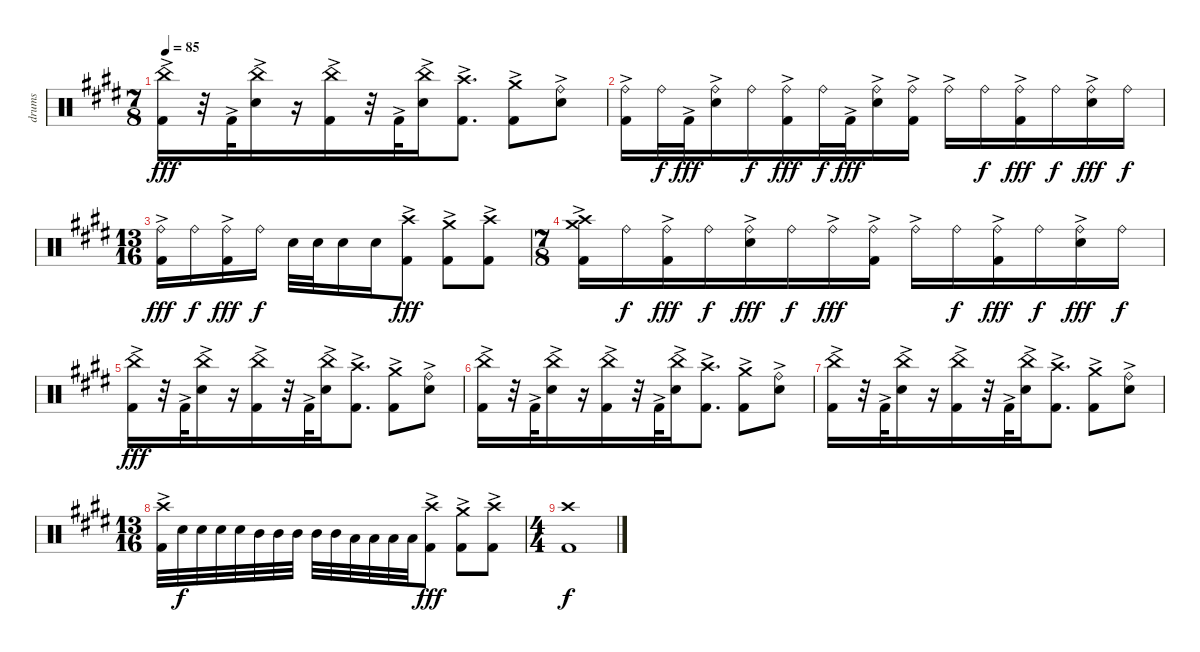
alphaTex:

\track ("drums" "drums") {instrument percussion}
\staff {score}
\articulation defaults
\ts (7 8)
\tempo 85
\clef neutral
\ks e
("China (hit)"{ac} "Kick (hit) 2"{ac}).16{dy fff} r.32 "Kick (hit) 2"{ac}.32 ("China (hit)"{ac} "Snare (hit) 2").16 r.16 ("China (hit)"{ac} "Kick (hit) 2"{ac}).16 r.32 "Kick (hit) 2"{ac}.32 ("China (hit)"{ac} "Snare (hit) 2").16 ("Crash high (hit)" "Kick (hit) 2"{ac}).8{d} ("Crash medium (hit)"{ac} "Kick (hit) 2"{ac}).8 ("Ride (bell)"{ac} "Snare (hit) 2").8 |
("Ride (bell)"{ac} "Kick (hit) 2"{ac}).16 "Ride (bell)".32{dy f} "Kick (hit) 2"{ac}.32{dy fff} ("Ride (bell)"{ac} "Snare (hit) 2").16 "Ride (bell)".16{dy f} ("Ride (bell)"{ac} "Kick (hit) 2"{ac}).16{dy fff} "Ride (bell)".32{dy f} "Kick (hit) 2"{ac}.32{dy fff} ("Ride (bell)"{ac} "Snare (hit) 2").16 ("Ride (bell)" "Kick (hit) 2"{ac}).16 "Ride (bell)"{ac}.16 "Ride (bell)".16{dy f} ("Ride (bell)"{ac} "Kick (hit) 2"{ac}).16{dy fff} "Ride (bell)".16{dy f} ("Ride (bell)"{ac} "Snare (hit) 2").16{dy fff} "Ride (bell)".16{dy f} |
\ts (13 16)
("Ride (bell)"{ac} "Kick (hit) 2"{ac}).16{dy fff} "Ride (bell)".16{dy f} ("Ride (bell)"{ac} "Kick (hit) 2"{ac}).16{dy fff} "Ride (bell)".16{dy f} "Snare (hit) 2".32 "Snare (hit) 2".32 "Snare (hit) 2".16 "Snare (hit) 2".16 ("Crash high (hit)" "Kick (hit) 2"{ac}).8{dy fff} ("Crash medium (hit)" "Kick (hit) 2"{ac}).8 ("Crash high (hit)" "Kick (hit) 2"{ac}).8 |
\ts (7 8)
("Crash high (hit)" "Crash medium (hit)" "Kick (hit) 2"{ac}).16 "Ride (bell)".16{dy f} ("Ride (bell)"{ac} "Kick (hit) 2"{ac}).16{dy fff} "Ride (bell)".16{dy f} ("Ride (bell)"{ac} "Snare (hit) 2").16{dy fff} "Ride (bell)".16{dy f} "Ride (bell)"{ac}.16{dy fff} ("Ride (bell)" "Kick (hit) 2"{ac}).16 "Ride (bell)"{ac}.16 "Ride (bell)".16{dy f} ("Ride (bell)"{ac} "Kick (hit) 2"{ac}).16{dy fff} "Ride (bell)".16{dy f} ("Ride (bell)"{ac} "Snare (hit) 2").16{dy fff} "Ride (bell)".16{dy f} |
("China (hit)"{ac} "Kick (hit) 2"{ac}).16{dy fff} r.32 "Kick (hit) 2"{ac}.32 ("China (hit)"{ac} "Snare (hit) 2").16 r.16 ("China (hit)"{ac} "Kick (hit) 2"{ac}).16 r.32 "Kick (hit) 2"{ac}.32 ("China (hit)"{ac} "Snare (hit) 2").16 ("Crash high (hit)" "Kick (hit) 2"{ac}).8{d} ("Crash medium (hit)"{ac} "Kick (hit) 2"{ac}).8 ("Ride (bell)"{ac} "Snare (hit) 2").8 |
("China (hit)"{ac} "Kick (hit) 2"{ac}).16 r.32 "Kick (hit) 2"{ac}.32 ("China (hit)"{ac} "Snare (hit) 2").16 r.16 ("China (hit)"{ac} "Kick (hit) 2"{ac}).16 r.32 "Kick (hit) 2"{ac}.32 ("China (hit)"{ac} "Snare (hit) 2").16 ("Crash high (hit)" "Kick (hit) 2"{ac}).8{d} ("Crash medium (hit)"{ac} "Kick (hit) 2"{ac}).8 ("Ride (bell)"{ac} "Snare (hit) 2").8 |
("China (hit)"{ac} "Kick (hit) 2"{ac}).16 r.32 "Kick (hit) 2"{ac}.32 ("China (hit)"{ac} "Snare (hit) 2").16 r.16 ("China (hit)"{ac} "Kick (hit) 2"{ac}).16 r.32 "Kick (hit) 2"{ac}.32 ("China (hit)"{ac} "Snare (hit) 2").16 ("Crash high (hit)" "Kick (hit) 2"{ac}).8{d} ("Crash medium (hit)"{ac} "Kick (hit) 2"{ac}).8 ("Ride (bell)"{ac} "Snare (hit) 2").8 |
\ts (13 16)
("Crash high (hit)" "Kick (hit) 2"{ac}).32 "Snare (hit) 2".32{dy f} "Snare (hit) 2".32 "Snare (hit) 2".32 "Snare (hit) 2".32 "Mid Tom (hit)".32 "Mid Tom (hit)".32 "Mid Tom (hit)".32 "Mid Tom (hit)".32 "Mid Tom (hit)".32 "Low Tom (hit)".32 "Low Tom (hit)".32 "Low Tom (hit)".32 "Low Tom (hit)".32 ("Crash high (hit)" "Kick (hit) 2"{ac}).8{dy fff} ("Crash medium (hit)" "Kick (hit) 2"{ac}).8 ("Crash high (hit)" "Kick (hit) 2"{ac}).8 |
\ts (4 4)
("Crash high (hit)" "Kick (hit) 2").1{dy f}
